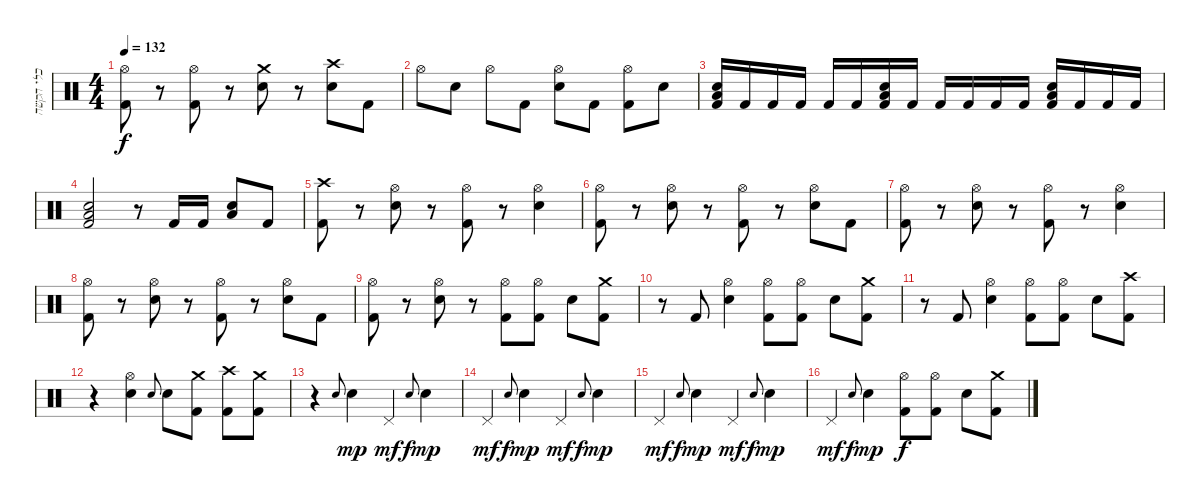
\track ("כלי הקשה" "כלי הקשה") {instrument percussion}
\staff {score}
\articulation defaults
\ts (4 4)
\tempo 132
\clef neutral
\ks c
("Hi-Hat (open)" "Kick (hit) 2").8{dy f} r.8 ("Hi-Hat (open)" "Kick (hit) 2").8 r.8 ("Crash medium (hit)" "Electric Snare (hit)").8 r.8 ("Crash high (hit)" "Electric Snare (hit)").8 "Kick (hit) 2".8 |
"Hi-Hat (open)".8 "Electric Snare (hit)".8 "Hi-Hat (open)".8 "Kick (hit) 2".8 ("Hi-Hat (open)" "Electric Snare (hit)").8 "Kick (hit) 2".8 ("Hi-Hat (open)" "Kick (hit) 2").8 "Electric Snare (hit)".8 |
("Low Floor Tom (hit)" "Electric Snare (hit)" "Kick (hit) 2").16 "Kick (hit) 2".16 "Kick (hit) 2".16 "Kick (hit) 2".16 "Kick (hit) 2".16 "Kick (hit) 2".16 ("Low Floor Tom (hit)" "Electric Snare (hit)" "Kick (hit) 2").16 "Kick (hit) 2".16 "Kick (hit) 2".16 "Kick (hit) 2".16 "Kick (hit) 2".16 "Kick (hit) 2".16 ("Low Floor Tom (hit)" "Electric Snare (hit)" "Kick (hit) 2").16 "Kick (hit) 2".16 "Kick (hit) 2".16 "Kick (hit) 2".16 |
("Low Floor Tom (hit)" "Electric Snare (hit)" "Kick (hit) 2").2 r.8 "Kick (hit) 2".16 "Kick (hit) 2".16 ("Low Floor Tom (hit)" "Electric Snare (hit)").8 "Kick (hit) 2".8 |
("Crash high (hit)" "Kick (hit) 2").8 r.8 ("Hi-Hat (open)" "Electric Snare (hit)").8 r.8 ("Hi-Hat (open)" "Kick (hit) 2").8 r.8 ("Hi-Hat (open)" "Electric Snare (hit)").4 |
("Hi-Hat (open)" "Kick (hit) 2").8 r.8 ("Hi-Hat (open)" "Electric Snare (hit)").8 r.8 ("Hi-Hat (open)" "Kick (hit) 2").8 r.8 ("Hi-Hat (open)" "Electric Snare (hit)").8 "Kick (hit) 2".8 |
("Hi-Hat (open)" "Kick (hit) 2").8 r.8 ("Hi-Hat (open)" "Electric Snare (hit)").8 r.8 ("Hi-Hat (open)" "Kick (hit) 2").8 r.8 ("Hi-Hat (open)" "Electric Snare (hit)").4 |
("Hi-Hat (open)" "Kick (hit) 2").8 r.8 ("Hi-Hat (open)" "Electric Snare (hit)").8 r.8 ("Hi-Hat (open)" "Kick (hit) 2").8 r.8 ("Hi-Hat (open)" "Electric Snare (hit)").8 "Kick (hit) 2".8 |
("Hi-Hat (open)" "Kick (hit) 2").8 r.8 ("Hi-Hat (open)" "Electric Snare (hit)").8 r.8 ("Hi-Hat (open)" "Kick (hit) 2").8 ("Hi-Hat (open)" "Kick (hit) 2").8 "Electric Snare (hit)".8 ("Crash medium (hit)" "Kick (hit) 2").8 |
r.8 "Kick (hit) 2".8 ("Hi-Hat (open)" "Electric Snare (hit)").4 ("Hi-Hat (open)" "Kick (hit) 2").8 ("Hi-Hat (open)" "Kick (hit) 2").8 "Electric Snare (hit)".8 ("Crash medium (hit)" "Kick (hit) 2").8 |
r.8 "Kick (hit) 2".8 ("Hi-Hat (open)" "Electric Snare (hit)").4 ("Hi-Hat (open)" "Kick (hit) 2").8 ("Hi-Hat (open)" "Kick (hit) 2").8 "Electric Snare (hit)".8 ("Crash high (hit)" "Kick (hit) 2").8 |
r.4 ("Hi-Hat (open)" "Electric Snare (hit)").4 "Electric Snare (hit)".8{gr onbeat} "Electric Snare (hit)".8 ("Crash medium (hit)" "Kick (hit) 2").8 ("Crash high (hit)" "Kick (hit) 2").8 ("Crash medium (hit)" "Kick (hit) 2").8 |
r.4 "Electric Snare (hit)".8{gr onbeat} "Electric Snare (hit)".4{dy mp} "Pedal Hi-Hat (hit)".4{dy mf} "Electric Snare (hit)".8{gr onbeat dy f} "Electric Snare (hit)".4{dy mp} |
"Pedal Hi-Hat (hit)".4{dy mf} "Electric Snare (hit)".8{gr onbeat dy f} "Electric Snare (hit)".4{dy mp} "Pedal Hi-Hat (hit)".4{dy mf} "Electric Snare (hit)".8{gr onbeat dy f} "Electric Snare (hit)".4{dy mp} |
"Pedal Hi-Hat (hit)".4{dy mf} "Electric Snare (hit)".8{gr onbeat dy f} "Electric Snare (hit)".4{dy mp} "Pedal Hi-Hat (hit)".4{dy mf} "Electric Snare (hit)".8{gr onbeat dy f} "Electric Snare (hit)".4{dy mp} |
"Pedal Hi-Hat (hit)".4{dy mf} "Electric Snare (hit)".8{gr onbeat dy f} "Electric Snare (hit)".4{dy mp} ("Hi-Hat (open)" "Kick (hit) 2").8{dy f} ("Hi-Hat (open)" "Kick (hit) 2").8 "Electric Snare (hit)".8 ("Crash medium (hit)" "Kick (hit) 2").8
